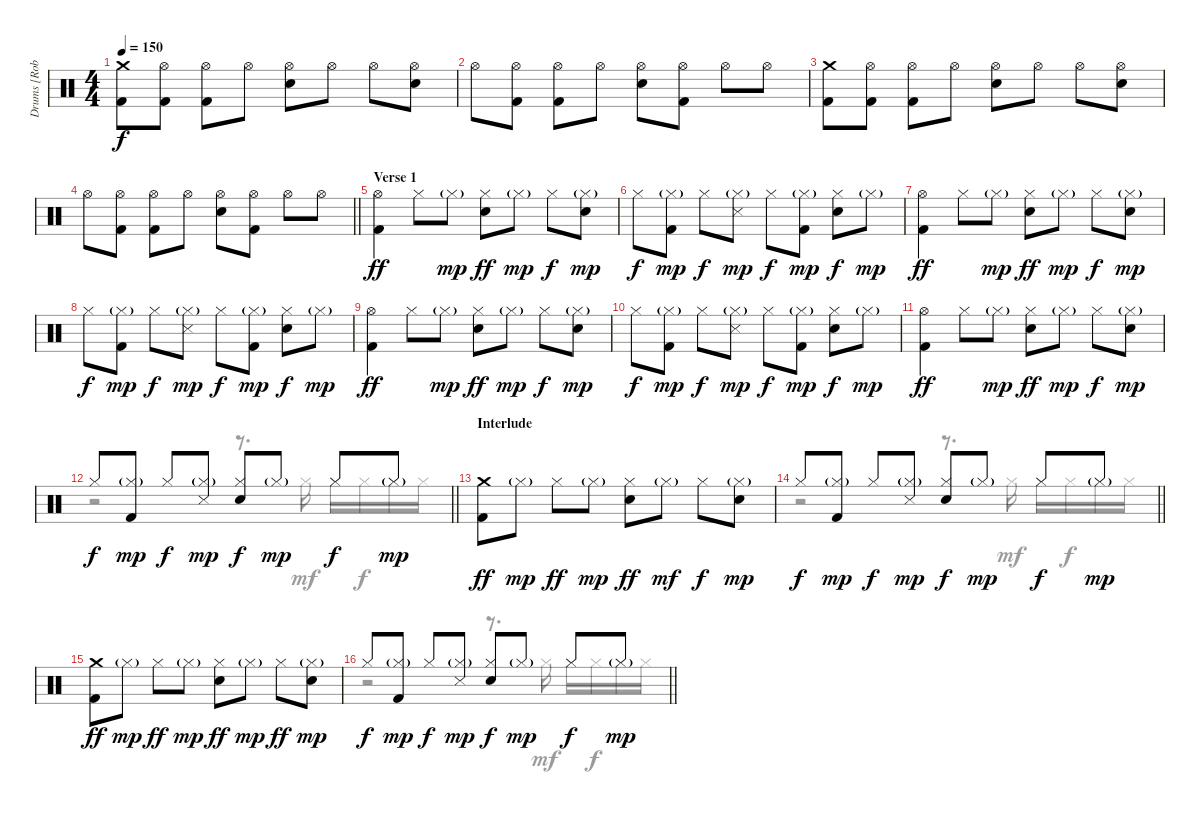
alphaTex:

\track ("Drums [Rob Bourdon]" "Drums [Rob") {instrument percussion}
\staff {score}
\articulation defaults
\voice
\ts (4 4)
\tempo 150
\clef neutral
\ks c
("Crash medium (hit)" "Kick (hit) 2").8{dy f} ("Hi-Hat (open)" "Kick (hit) 2").8 ("Hi-Hat (open)" "Kick (hit) 2").8 "Hi-Hat (open)".8 ("Hi-Hat (open)" "Electric Snare (hit)").8 "Hi-Hat (open)".8 "Hi-Hat (open)".8 ("Hi-Hat (open)" "Snare (hit) 2").8 |
"Hi-Hat (open)".8 ("Hi-Hat (open)" "Kick (hit) 2").8 ("Hi-Hat (open)" "Kick (hit) 2").8 "Hi-Hat (open)".8 ("Hi-Hat (open)" "Snare (hit) 2").8 ("Hi-Hat (open)" "Kick (hit) 2").8 "Hi-Hat (open)".8 "Hi-Hat (open)".8 |
("Crash medium (hit)" "Kick (hit) 2").8 ("Hi-Hat (open)" "Kick (hit) 2").8 ("Hi-Hat (open)" "Kick (hit) 2").8 "Hi-Hat (open)".8 ("Hi-Hat (open)" "Electric Snare (hit)").8 "Hi-Hat (open)".8 "Hi-Hat (open)".8 ("Hi-Hat (open)" "Snare (hit) 2").8 |
\barLineRight lightlight "Hi-Hat (open)".8
("Hi-Hat (open)" "Kick (hit) 2").8 ("Hi-Hat (open)" "Kick (hit) 2").8 "Hi-Hat (open)".8 ("Hi-Hat (open)" "Snare (hit) 2").8 ("Hi-Hat (open)" "Kick (hit) 2").8 "Hi-Hat (open)".8 "Hi-Hat (open)".8 |
\section ("" "Verse 1")
("Hi-Hat (open)" "Kick (hit) 2").4{dy ff} "Hi-Hat (closed)".8 "Hi-Hat (closed)"{g}.8{dy mp} ("Hi-Hat (closed)" "Electric Snare (hit)").8{dy ff} "Hi-Hat (closed)"{g}.8{dy mp} "Hi-Hat (closed)".8{dy f} ("Hi-Hat (closed)"{g} "Snare (hit) 2").8{dy mp} |
"Hi-Hat (closed)".8{dy f} ("Hi-Hat (closed)"{g} "Kick (hit) 2").8{dy mp} "Hi-Hat (closed)".8{dy f} ("Hi-Hat (closed)"{g} "Snare (side stick) 3").8{dy mp} "Hi-Hat (closed)".8{dy f} ("Hi-Hat (closed)"{g} "Kick (hit) 2").8{dy mp} ("Hi-Hat (closed)" "Snare (hit) 2").8{dy f} "Hi-Hat (closed)"{g}.8{dy mp} |
("Hi-Hat (open)" "Kick (hit) 2").4{dy ff} "Hi-Hat (closed)".8 "Hi-Hat (closed)"{g}.8{dy mp} ("Hi-Hat (closed)" "Electric Snare (hit)").8{dy ff} "Hi-Hat (closed)"{g}.8{dy mp} "Hi-Hat (closed)".8{dy f} ("Hi-Hat (closed)"{g} "Snare (hit) 2").8{dy mp} |
"Hi-Hat (closed)".8{dy f} ("Hi-Hat (closed)"{g} "Kick (hit) 2").8{dy mp} "Hi-Hat (closed)".8{dy f} ("Hi-Hat (closed)"{g} "Snare (side stick) 3").8{dy mp} "Hi-Hat (closed)".8{dy f} ("Hi-Hat (closed)"{g} "Kick (hit) 2").8{dy mp} ("Hi-Hat (closed)" "Snare (hit) 2").8{dy f} "Hi-Hat (closed)"{g}.8{dy mp} |
("Hi-Hat (open)" "Kick (hit) 2").4{dy ff} "Hi-Hat (closed)".8 "Hi-Hat (closed)"{g}.8{dy mp} ("Hi-Hat (closed)" "Electric Snare (hit)").8{dy ff} "Hi-Hat (closed)"{g}.8{dy mp} "Hi-Hat (closed)".8{dy f} ("Hi-Hat (closed)"{g} "Snare (hit) 2").8{dy mp} |
"Hi-Hat (closed)".8{dy f} ("Hi-Hat (closed)"{g} "Kick (hit) 2").8{dy mp} "Hi-Hat (closed)".8{dy f} ("Hi-Hat (closed)"{g} "Snare (side stick) 3").8{dy mp} "Hi-Hat (closed)".8{dy f} ("Hi-Hat (closed)"{g} "Kick (hit) 2").8{dy mp} ("Hi-Hat (closed)" "Snare (hit) 2").8{dy f} "Hi-Hat (closed)"{g}.8{dy mp} |
("Hi-Hat (open)" "Kick (hit) 2").4{dy ff} "Hi-Hat (closed)".8 "Hi-Hat (closed)"{g}.8{dy mp} ("Hi-Hat (closed)" "Electric Snare (hit)").8{dy ff} "Hi-Hat (closed)"{g}.8{dy mp} "Hi-Hat (closed)".8{dy f} ("Hi-Hat (closed)"{g} "Snare (hit) 2").8{dy mp} |
\barLineRight lightlight "Hi-Hat (closed)".8{dy f}
("Hi-Hat (closed)"{g} "Kick (hit) 2").8{dy mp} "Hi-Hat (closed)".8{dy f} ("Hi-Hat (closed)"{g} "Snare (side stick) 3").8{dy mp} ("Hi-Hat (closed)" "Snare (hit) 2").8{dy f} "Hi-Hat (closed)"{g}.8{dy mp} "Hi-Hat (closed)".8{dy f} "Hi-Hat (closed)"{g}.8{dy mp} |
\section ("" "Interlude")
("Crash medium (hit)" "Kick (hit) 2").8{dy ff} "Hi-Hat (closed)"{g}.8{dy mp} "Hi-Hat (closed)".8{dy ff} "Hi-Hat (closed)"{g}.8{dy mp} ("Hi-Hat (closed)" "Electric Snare (hit)").8{dy ff} "Hi-Hat (closed)"{g}.8{dy mf} "Hi-Hat (closed)".8{dy f} ("Hi-Hat (closed)"{g} "Snare (hit) 2").8{dy mp} |
\barLineRight lightlight "Hi-Hat (closed)".8{dy f}
("Hi-Hat (closed)"{g} "Kick (hit) 2").8{dy mp} "Hi-Hat (closed)".8{dy f} ("Hi-Hat (closed)"{g} "Snare (side stick) 3").8{dy mp} ("Hi-Hat (closed)" "Snare (hit) 2").8{dy f} "Hi-Hat (closed)"{g}.8{dy mp} "Hi-Hat (closed)".8{dy f} "Hi-Hat (closed)"{g}.8{dy mp} |
("Crash medium (hit)" "Kick (hit) 2").8{dy ff} "Hi-Hat (closed)"{g}.8{dy mp} "Hi-Hat (closed)".8{dy ff} "Hi-Hat (closed)"{g}.8{dy mp} ("Hi-Hat (closed)" "Electric Snare (hit)").8{dy ff} "Hi-Hat (closed)"{g}.8{dy mp} "Hi-Hat (closed)".8{dy ff} ("Hi-Hat (closed)"{g} "Snare (hit) 2").8{dy mp} |
\barLineRight lightlight "Hi-Hat (closed)".8{dy f}
("Hi-Hat (closed)"{g} "Kick (hit) 2").8{dy mp} "Hi-Hat (closed)".8{dy f} ("Hi-Hat (closed)"{g} "Snare (side stick) 3").8{dy mp} ("Hi-Hat (closed)" "Snare (hit) 2").8{dy f} "Hi-Hat (closed)"{g}.8{dy mp} "Hi-Hat (closed)".8{dy f} "Hi-Hat (closed)"{g}.8{dy mp}
\voice
\clef neutral
\ottava regular
\simile none
\ks c
|
|
|
\barLineRight lightlight
|
|
|
|
|
|
|
|
\barLineRight lightlight
r.2 r.8{d} "Hi-Hat (closed)".16{dy mf} "Hi-Hat (closed)".16 "Hi-Hat (closed)".16{dy f} "Hi-Hat (closed)".16 "Hi-Hat (closed)".16 |
|
\barLineRight lightlight
r.2 r.8{d} "Hi-Hat (closed)".16{dy mf} "Hi-Hat (closed)".16 "Hi-Hat (closed)".16{dy f} "Hi-Hat (closed)".16 "Hi-Hat (closed)".16 |
|
\barLineRight lightlight
r.2 r.8{d} "Hi-Hat (closed)".16{dy mf} "Hi-Hat (closed)".16 "Hi-Hat (closed)".16{dy f} "Hi-Hat (closed)".16 "Hi-Hat (closed)".16
